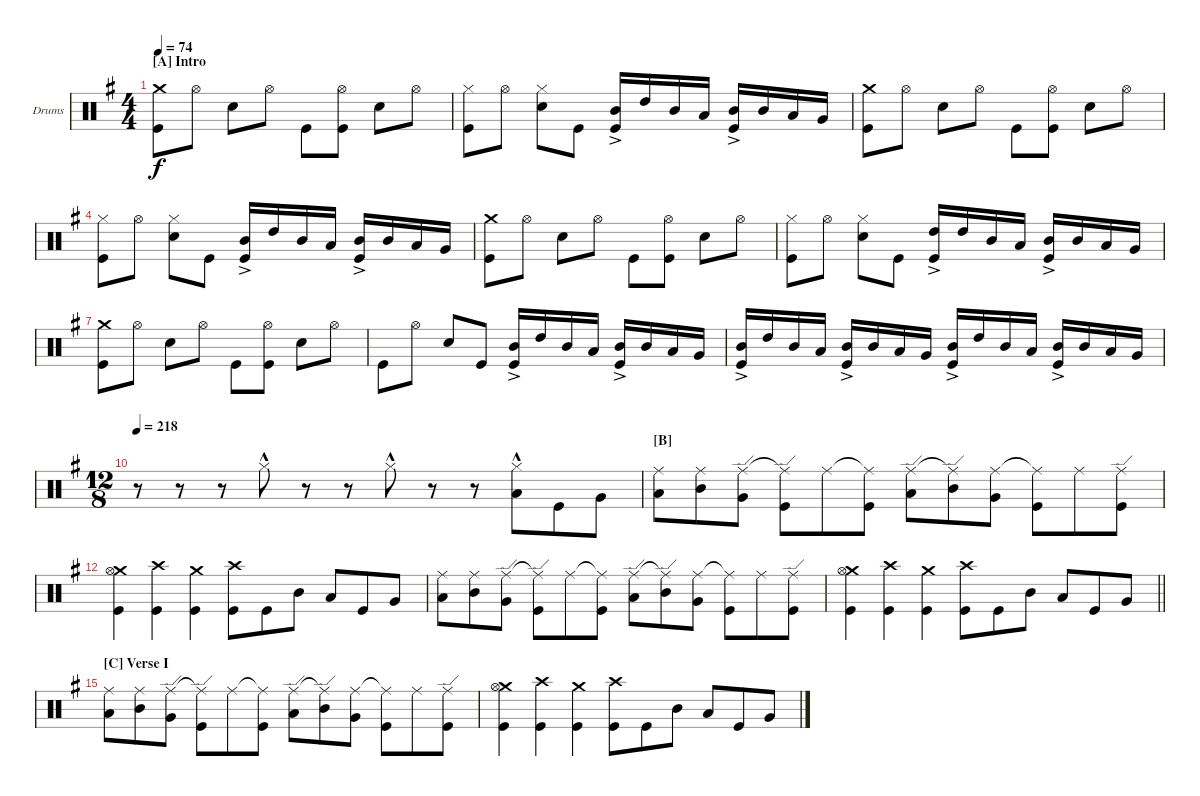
\bracketExtendMode nobrackets
\firstSystemTrackNameOrientation horizontal
\otherSystemsTrackNameOrientation horizontal
\defaultBarNumberDisplay FirstOfSystem
\track ("Drums" "Drums") {instrument percussion}
\staff {score}
\articulation defaults
\ts (4 4)
\section ("A" "Intro")
\tempo 74
\clef neutral
\scale
0.27182
\ks g
("Crash medium (hit)" "Kick (hit)").8{dy f} "Hi-Hat (open)".8 "Snare (hit) 2".8 "Hi-Hat (open)".8 "Kick (hit)".8 ("Hi-Hat (open)" "Kick (hit)").8 "Snare (hit) 2".8 "Hi-Hat (open)".8 |
\scale
0.264339 ("Kick (hit)" "Hi-Hat (closed)").8 "Hi-Hat (open)".8 ("Snare (hit) 2" "Hi-Hat (closed)").8 "Kick (hit)".8 ("Kick (hit)" "Mid Tom (hit)"{ac}).16 "High Tom (hit)".16 "Mid Tom (hit)".16 "Low Tom (hit)".16 ("Mid Tom (hit)"{ac} "Kick (hit)"{ac}).16 "Mid Tom (hit)".16 "Low Tom (hit)".16 "Very Low Tom (hit)".16 |
\scale
0.199501 ("Crash medium (hit)" "Kick (hit)").8 "Hi-Hat (open)".8 "Snare (hit) 2".8 "Hi-Hat (open)".8 "Kick (hit)".8 ("Hi-Hat (open)" "Kick (hit)").8 "Snare (hit) 2".8 "Hi-Hat (open)".8 |
\scale
0.264339 ("Kick (hit)" "Hi-Hat (closed)").8 "Hi-Hat (open)".8 ("Snare (hit) 2" "Hi-Hat (closed)").8 "Kick (hit)".8 ("Kick (hit)" "Mid Tom (hit)"{ac}).16 "High Tom (hit)".16 "Mid Tom (hit)".16 "Low Tom (hit)".16 ("Mid Tom (hit)"{ac} "Kick (hit)"{ac}).16 "Mid Tom (hit)".16 "Low Tom (hit)".16 "Very Low Tom (hit)".16 |
\scale
0.215054 ("Crash medium (hit)" "Kick (hit)").8 "Hi-Hat (open)".8 "Snare (hit) 2".8 "Hi-Hat (open)".8 "Kick (hit)".8 ("Hi-Hat (open)" "Kick (hit)").8 "Snare (hit) 2".8 "Hi-Hat (open)".8 |
\scale
0.284946 ("Kick (hit)" "Hi-Hat (closed)").8 "Hi-Hat (open)".8 ("Snare (hit) 2" "Hi-Hat (closed)").8 "Kick (hit)".8 ("High Tom (hit)"{ac} "Kick (hit)").16 "High Tom (hit)".16 "Mid Tom (hit)".16 "Low Tom (hit)".16 ("Mid Tom (hit)"{ac} "Kick (hit)"{ac}).16 "Mid Tom (hit)".16 "Low Tom (hit)".16 "Very Low Tom (hit)".16 |
\scale
0.215054 ("Crash medium (hit)" "Kick (hit)").8 "Hi-Hat (open)".8 "Snare (hit) 2".8 "Hi-Hat (open)".8 "Kick (hit)".8 ("Hi-Hat (open)" "Kick (hit)").8 "Snare (hit) 2".8 "Hi-Hat (open)".8 |
\scale
0.284946 "Kick (hit)".8 "Hi-Hat (open)".8 "Snare (hit) 2".8 "Kick (hit)".8 ("Kick (hit)" "Mid Tom (hit)"{ac}).16 "High Tom (hit)".16 "Mid Tom (hit)".16 "Low Tom (hit)".16 ("Mid Tom (hit)"{ac} "Kick (hit)"{ac}).16 "Mid Tom (hit)".16 "Low Tom (hit)".16 "Very Low Tom (hit)".16 |
\scale
0.267819 ("Kick (hit)" "Mid Tom (hit)"{ac}).16 "High Tom (hit)".16 "Mid Tom (hit)".16 "Low Tom (hit)".16 ("Mid Tom (hit)"{ac} "Kick (hit)"{ac}).16 "Mid Tom (hit)".16 "Low Tom (hit)".16 "Very Low Tom (hit)".16 ("Kick (hit)"{ac} "Mid Tom (hit)"{ac}).16 "High Tom (hit)".16 "Mid Tom (hit)".16 "Low Tom (hit)".16 ("Mid Tom (hit)"{ac} "Kick (hit)"{ac}).16 "Mid Tom (hit)".16 "Low Tom (hit)".16 "Very Low Tom (hit)".16 |
\ts (12 8)
\tempo 218
\scale
0.272138 r.8 r.8 r.8 "Hi-Hat (closed)"{hac}.8 r.8 r.8 "Hi-Hat (closed)"{hac}.8 r.8 r.8 ("Low Tom (hit)" "Hi-Hat (closed)"{hac}).8 "Kick (hit)".8 "Very Low Tom (hit)".8 |
\section ("B" "")
\scale
0.24622 ("Ride (middle)" "Low Tom (hit)").8 ("Ride (middle)" "Mid Tom (hit)").8 ("Ride (edge)" "Very Low Tom (hit)").8 ("Ride (edge)"{t} "Kick (hit)").8 "Ride (middle)".8 ("Ride (middle)"{t} "Kick (hit)").8 ("Ride (edge)" "Low Tom (hit)").8 ("Ride (edge)"{t} "Mid Tom (hit)").8 ("Ride (middle)" "Very Low Tom (hit)").8 ("Ride (middle)"{t} "Kick (hit)").8 "Ride (middle)".8 ("Ride (edge)" "Kick (hit)").8 |
\scale
0.213823 ("Crash medium (hit)" "Kick (hit)" "Hi-Hat (open)").4 ("Crash high (hit)" "Kick (hit)").4 ("Crash medium (hit)" "Kick (hit)").4 ("Crash high (hit)" "Kick (hit)").8 "Kick (hit)".8 "Mid Tom (hit)".8 "Low Tom (hit)".8 "Kick (hit)".8 "Very Low Tom (hit)".8 |
\scale
0.267606 ("Ride (middle)" "Low Tom (hit)").8 ("Ride (middle)" "Mid Tom (hit)").8 ("Ride (edge)" "Very Low Tom (hit)").8 ("Ride (edge)"{t} "Kick (hit)").8 "Ride (middle)".8 ("Ride (middle)"{t} "Kick (hit)").8 ("Ride (edge)" "Low Tom (hit)").8 ("Ride (edge)"{t} "Mid Tom (hit)").8 ("Ride (middle)" "Very Low Tom (hit)").8 ("Ride (middle)"{t} "Kick (hit)").8 "Ride (middle)".8 ("Ride (edge)" "Kick (hit)").8 |
\scale
0.232394
\barLineRight lightlight
("Crash medium (hit)" "Kick (hit)" "Hi-Hat (open)").4 ("Crash high (hit)" "Kick (hit)").4 ("Crash medium (hit)" "Kick (hit)").4 ("Crash high (hit)" "Kick (hit)").8 "Kick (hit)".8 "Mid Tom (hit)".8 "Low Tom (hit)".8 "Kick (hit)".8 "Very Low Tom (hit)".8 |
\section ("C" "Verse I")
\scale
0.267606 ("Ride (middle)" "Low Tom (hit)").8 ("Ride (middle)" "Mid Tom (hit)").8 ("Ride (edge)" "Very Low Tom (hit)").8 ("Ride (edge)"{t} "Kick (hit)").8 "Ride (middle)".8 ("Ride (middle)"{t} "Kick (hit)").8 ("Ride (edge)" "Low Tom (hit)").8 ("Ride (edge)"{t} "Mid Tom (hit)").8 ("Ride (middle)" "Very Low Tom (hit)").8 ("Ride (middle)"{t} "Kick (hit)").8 "Ride (middle)".8 ("Ride (edge)" "Kick (hit)").8 |
\scale
0.232394 ("Crash medium (hit)" "Kick (hit)" "Hi-Hat (open)").4 ("Crash high (hit)" "Kick (hit)").4 ("Crash medium (hit)" "Kick (hit)").4 ("Crash high (hit)" "Kick (hit)").8 "Kick (hit)".8 "Mid Tom (hit)".8 "Low Tom (hit)".8 "Kick (hit)".8 "Very Low Tom (hit)".8
